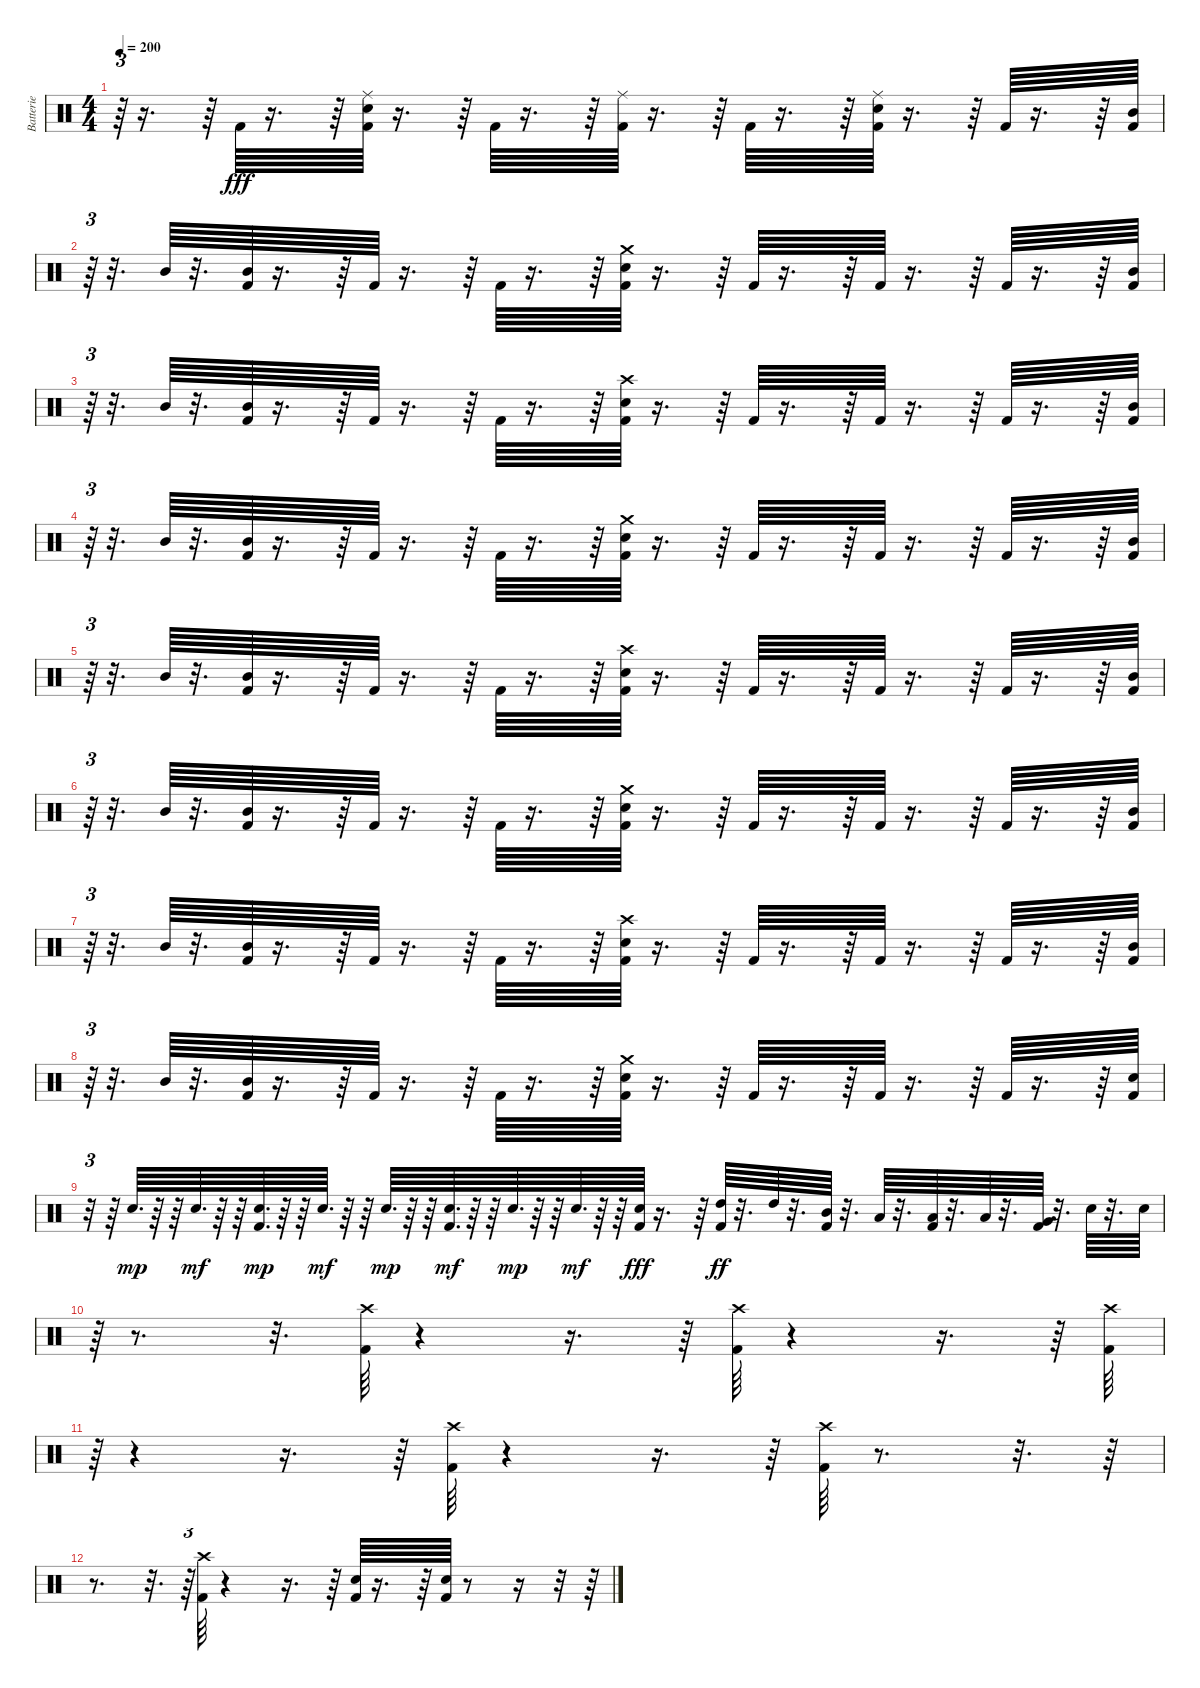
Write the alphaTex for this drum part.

\track ("Batterie" "Batterie") {instrument percussion}
\staff {score}
\articulation defaults
\ts (4 4)
\tempo 200
\clef neutral
\ks c
r.64{tu (3 2) dy fff} r.16{d} r.64 "Kick (hit) 2".64 r.16{d} r.64 ("Kick (hit) 2" "Snare (hit) 2" "Ride (middle)").64 r.16{d} r.64 "Kick (hit) 2".64 r.16{d} r.64 ("Kick (hit) 2" "Ride (middle)").64 r.16{d} r.64 "Kick (hit) 2".64 r.16{d} r.64 ("Kick (hit) 2" "Snare (hit) 2" "Ride (middle)").64 r.16{d} r.64 "Kick (hit) 2".64 r.16{d} r.64 ("Kick (hit) 2" "Mid Tom (hit)").64 |
r.64{tu (3 2)} r.32{d} "Mid Tom (hit)".64 r.32{d} ("Kick (hit) 2" "Mid Tom (hit)").64 r.16{d} r.64 "Kick (hit) 2".64 r.16{d} r.64 "Kick (hit) 2".64 r.16{d} r.64 ("Kick (hit) 2" "Snare (hit) 2" "Crash medium (hit)").64 r.16{d} r.64 "Kick (hit) 2".64 r.16{d} r.64 "Kick (hit) 2".64 r.16{d} r.64 "Kick (hit) 2".64 r.16{d} r.64 ("Kick (hit) 2" "Mid Tom (hit)").64 |
r.64{tu (3 2)} r.32{d} "Mid Tom (hit)".64 r.32{d} ("Kick (hit) 2" "Mid Tom (hit)").64 r.16{d} r.64 "Kick (hit) 2".64 r.16{d} r.64 "Kick (hit) 2".64 r.16{d} r.64 ("Snare (hit) 2" "Kick (hit) 2" "Crash high (hit)").64 r.16{d} r.64 "Kick (hit) 2".64 r.16{d} r.64 "Kick (hit) 2".64 r.16{d} r.64 "Kick (hit) 2".64 r.16{d} r.64 ("Kick (hit) 2" "Mid Tom (hit)").64 |
r.64{tu (3 2)} r.32{d} "Mid Tom (hit)".64 r.32{d} ("Kick (hit) 2" "Mid Tom (hit)").64 r.16{d} r.64 "Kick (hit) 2".64 r.16{d} r.64 "Kick (hit) 2".64 r.16{d} r.64 ("Kick (hit) 2" "Snare (hit) 2" "Crash medium (hit)").64 r.16{d} r.64 "Kick (hit) 2".64 r.16{d} r.64 "Kick (hit) 2".64 r.16{d} r.64 "Kick (hit) 2".64 r.16{d} r.64 ("Kick (hit) 2" "Mid Tom (hit)").64 |
r.64{tu (3 2)} r.32{d} "Mid Tom (hit)".64 r.32{d} ("Kick (hit) 2" "Mid Tom (hit)").64 r.16{d} r.64 "Kick (hit) 2".64 r.16{d} r.64 "Kick (hit) 2".64 r.16{d} r.64 ("Snare (hit) 2" "Kick (hit) 2" "Crash high (hit)").64 r.16{d} r.64 "Kick (hit) 2".64 r.16{d} r.64 "Kick (hit) 2".64 r.16{d} r.64 "Kick (hit) 2".64 r.16{d} r.64 ("Kick (hit) 2" "Mid Tom (hit)").64 |
r.64{tu (3 2)} r.32{d} "Mid Tom (hit)".64 r.32{d} ("Kick (hit) 2" "Mid Tom (hit)").64 r.16{d} r.64 "Kick (hit) 2".64 r.16{d} r.64 "Kick (hit) 2".64 r.16{d} r.64 ("Kick (hit) 2" "Snare (hit) 2" "Crash medium (hit)").64 r.16{d} r.64 "Kick (hit) 2".64 r.16{d} r.64 "Kick (hit) 2".64 r.16{d} r.64 "Kick (hit) 2".64 r.16{d} r.64 ("Kick (hit) 2" "Mid Tom (hit)").64 |
r.64{tu (3 2)} r.32{d} "Mid Tom (hit)".64 r.32{d} ("Kick (hit) 2" "Mid Tom (hit)").64 r.16{d} r.64 "Kick (hit) 2".64 r.16{d} r.64 "Kick (hit) 2".64 r.16{d} r.64 ("Snare (hit) 2" "Kick (hit) 2" "Crash high (hit)").64 r.16{d} r.64 "Kick (hit) 2".64 r.16{d} r.64 "Kick (hit) 2".64 r.16{d} r.64 "Kick (hit) 2".64 r.16{d} r.64 ("Kick (hit) 2" "Mid Tom (hit)").64 |
r.64{tu (3 2)} r.32{d} "Mid Tom (hit)".64 r.32{d} ("Kick (hit) 2" "Mid Tom (hit)").64 r.16{d} r.64 "Kick (hit) 2".64 r.16{d} r.64 "Kick (hit) 2".64 r.16{d} r.64 ("Kick (hit) 2" "Snare (hit) 2" "Crash medium (hit)").64 r.16{d} r.64 "Kick (hit) 2".64 r.16{d} r.64 "Kick (hit) 2".64 r.16{d} r.64 "Kick (hit) 2".64 r.16{d} r.64 ("Kick (hit) 2" "Snare (hit) 2").64 |
r.32{tu (3 2)} r.64 "Snare (hit) 2".64{d dy mp} r.64 r.64 "Snare (hit) 2".64{d dy mf} r.64 r.64 ("Kick (hit) 2" "Snare (hit) 2").64{d dy mp} r.64 r.64 "Snare (hit) 2".64{d dy mf} r.64 r.64 "Snare (hit) 2".64{d dy mp} r.64 r.64 ("Kick (hit) 2" "Snare (hit) 2").64{d dy mf} r.64 r.64 "Snare (hit) 2".64{d dy mp} r.64 r.64 "Snare (hit) 2".64{d dy mf} r.64 r.64 ("Kick (hit) 2" "Snare (hit) 2").64{dy fff} r.16{d} r.64 ("Kick (hit) 2" "High Tom (hit)").64{dy ff} r.32{d} "High Tom (hit)".64 r.32{d} ("Kick (hit) 2" "Mid Tom (hit)").64 r.32{d} "Low Tom (hit)".64 r.32{d} ("Kick (hit) 2" "Low Tom (hit)").64 r.32{d} "Low Tom (hit)".64 r.32{d} ("Kick (hit) 2" "Very Low Tom (hit)").64 r.32{d} "Snare (hit) 2".64 r.32{d} "Snare (hit) 2".64 |
r.64{tu (3 2)} r.8{d} r.32{d} ("Kick (hit) 2" "Crash high (hit)").64 r.4 r.16{d} r.64 ("Kick (hit) 2" "Crash high (hit)").64 r.4 r.16{d} r.64 ("Kick (hit) 2" "Crash high (hit)").64 |
r.64{tu (3 2)} r.4 r.16{d} r.64 ("Kick (hit) 2" "Crash high (hit)").64 r.4 r.16{d} r.64 ("Kick (hit) 2" "Crash high (hit)").64 r.8{d} r.32{d} r.64 |
r.8{d} r.32{d} r.64{tu (3 2)} ("Kick (hit) 2" "Crash high (hit)").64 r.4 r.16{d} r.64 ("Kick (hit) 2" "Snare (hit) 2").64 r.16{d} r.64 ("Snare (hit) 2" "Kick (hit) 2").64 r.8 r.16 r.32 r.64
